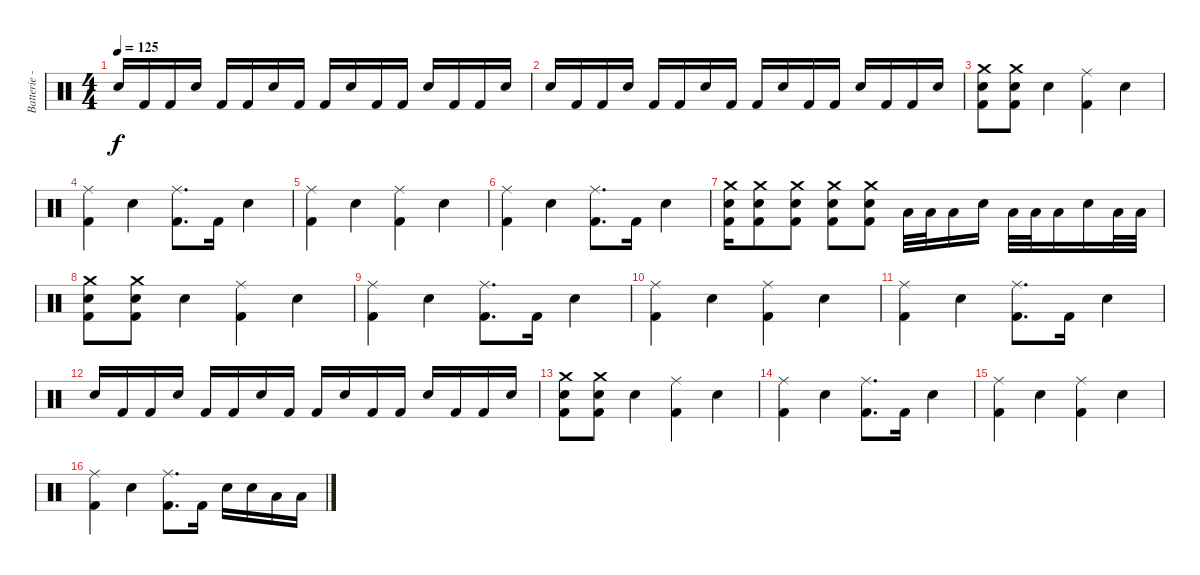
\track ("Batterie - Shane Gaalaas" "Batterie -") {instrument percussion}
\staff {score}
\articulation defaults
\ts (4 4)
\tempo 125
\clef neutral
\ks c "Electric Snare (hit)".16{dy f} "Kick (hit) 2".16 "Kick (hit) 2".16 "Electric Snare (hit)".16 "Kick (hit) 2".16 "Kick (hit) 2".16 "Electric Snare (hit)".16 "Kick (hit) 2".16 "Kick (hit) 2".16 "Electric Snare (hit)".16 "Kick (hit) 2".16 "Kick (hit) 2".16 "Electric Snare (hit)".16 "Kick (hit) 2".16 "Kick (hit) 2".16 "Electric Snare (hit)".16
|
"Electric Snare (hit)".16 "Kick (hit) 2".16 "Kick (hit) 2".16 "Electric Snare (hit)".16 "Kick (hit) 2".16 "Kick (hit) 2".16 "Electric Snare (hit)".16 "Kick (hit) 2".16 "Kick (hit) 2".16 "Electric Snare (hit)".16 "Kick (hit) 2".16 "Kick (hit) 2".16 "Electric Snare (hit)".16 "Kick (hit) 2".16 "Kick (hit) 2".16 "Electric Snare (hit)".16 |
("Crash medium (hit)" "Electric Snare (hit)" "Kick (hit) 2").8 ("Crash medium (hit)" "Electric Snare (hit)" "Kick (hit) 2").8 "Electric Snare (hit)".4 ("Ride (middle)" "Kick (hit) 2").4 "Electric Snare (hit)".4 |
("Ride (middle)" "Kick (hit) 2").4 "Electric Snare (hit)".4 ("Ride (middle)" "Kick (hit) 2").8{d} "Kick (hit) 2".16 "Electric Snare (hit)".4 |
("Ride (middle)" "Kick (hit) 2").4 "Electric Snare (hit)".4 ("Ride (middle)" "Kick (hit) 2").4 "Electric Snare (hit)".4 |
("Ride (middle)" "Kick (hit) 2").4 "Electric Snare (hit)".4 ("Ride (middle)" "Kick (hit) 2").8{d} "Kick (hit) 2".16 "Electric Snare (hit)".4 |
("Crash medium (hit)" "Electric Snare (hit)" "Kick (hit) 2").16 ("Crash medium (hit)" "Electric Snare (hit)" "Kick (hit) 2").8 ("Crash medium (hit)" "Electric Snare (hit)" "Kick (hit) 2").8 ("Crash medium (hit)" "Electric Snare (hit)" "Kick (hit) 2").8 ("Crash medium (hit)" "Electric Snare (hit)" "Kick (hit) 2").8 "Low Tom (hit)".32 "Low Tom (hit)".32 "Low Tom (hit)".16 "Electric Snare (hit)".16 "Low Tom (hit)".32 "Low Tom (hit)".32 "Low Tom (hit)".16 "Electric Snare (hit)".16 "Low Tom (hit)".32 "Low Tom (hit)".32 |
("Crash medium (hit)" "Electric Snare (hit)" "Kick (hit) 2").8 ("Crash medium (hit)" "Electric Snare (hit)" "Kick (hit) 2").8 "Electric Snare (hit)".4 ("Ride (middle)" "Kick (hit) 2").4 "Electric Snare (hit)".4 |
("Ride (middle)" "Kick (hit) 2").4 "Electric Snare (hit)".4 ("Ride (middle)" "Kick (hit) 2").8{d} "Kick (hit) 2".16 "Electric Snare (hit)".4 |
("Ride (middle)" "Kick (hit) 2").4 "Electric Snare (hit)".4 ("Ride (middle)" "Kick (hit) 2").4 "Electric Snare (hit)".4 |
("Ride (middle)" "Kick (hit) 2").4 "Electric Snare (hit)".4 ("Ride (middle)" "Kick (hit) 2").8{d} "Kick (hit) 2".16 "Electric Snare (hit)".4 |
"Electric Snare (hit)".16 "Kick (hit) 2".16 "Kick (hit) 2".16 "Electric Snare (hit)".16 "Kick (hit) 2".16 "Kick (hit) 2".16 "Electric Snare (hit)".16 "Kick (hit) 2".16 "Kick (hit) 2".16 "Electric Snare (hit)".16 "Kick (hit) 2".16 "Kick (hit) 2".16 "Electric Snare (hit)".16 "Kick (hit) 2".16 "Kick (hit) 2".16 "Electric Snare (hit)".16 |
("Crash medium (hit)" "Electric Snare (hit)" "Kick (hit) 2").8 ("Crash medium (hit)" "Electric Snare (hit)" "Kick (hit) 2").8 "Electric Snare (hit)".4 ("Ride (middle)" "Kick (hit) 2").4 "Electric Snare (hit)".4 |
("Ride (middle)" "Kick (hit) 2").4 "Electric Snare (hit)".4 ("Ride (middle)" "Kick (hit) 2").8{d} "Kick (hit) 2".16 "Electric Snare (hit)".4 |
("Ride (middle)" "Kick (hit) 2").4 "Electric Snare (hit)".4 ("Ride (middle)" "Kick (hit) 2").4 "Electric Snare (hit)".4 |
("Ride (middle)" "Kick (hit) 2").4 "Electric Snare (hit)".4 ("Ride (middle)" "Kick (hit) 2").8{d} "Kick (hit) 2".16 "Electric Snare (hit)".16 "Electric Snare (hit)".16 "Low Tom (hit)".16 "Low Tom (hit)".16
